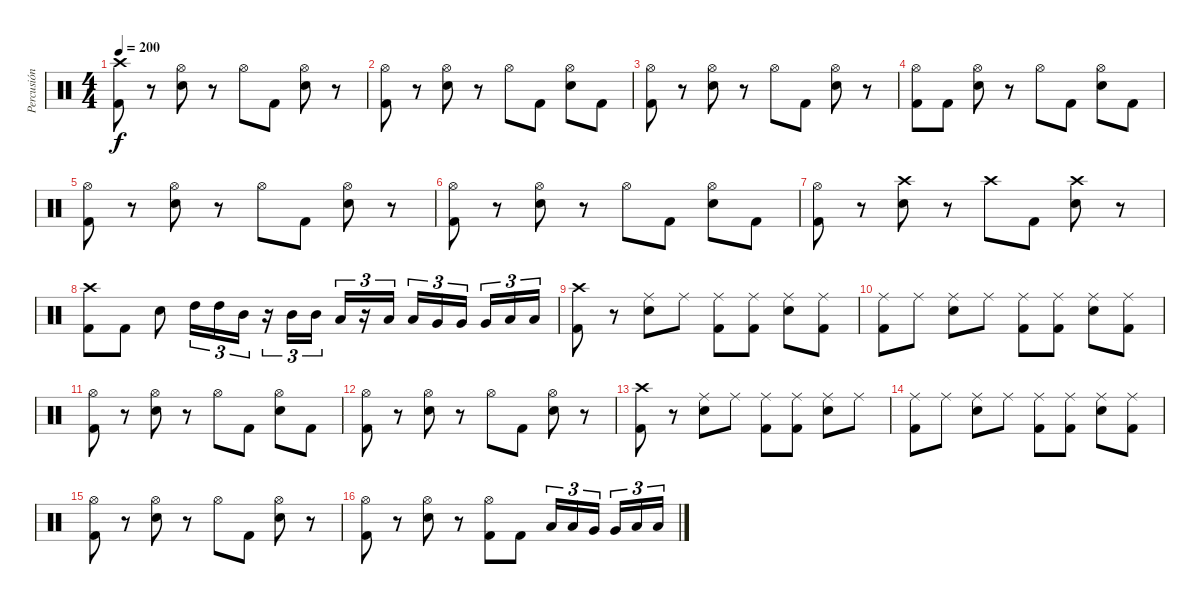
\track ("Percusión" "Percusión") {instrument percussion}
\staff {score}
\articulation defaults
\ts (4 4)
\tempo 200
\clef neutral
\ks c
("Crash high (hit)" "Kick (hit) 2").8{dy f} r.8 ("Hi-Hat (open)" "Electric Snare (hit)").8 r.8 "Hi-Hat (open)".8 "Kick (hit) 2".8 ("Hi-Hat (open)" "Electric Snare (hit)").8 r.8 |
("Hi-Hat (open)" "Kick (hit) 2").8 r.8 ("Hi-Hat (open)" "Electric Snare (hit)").8 r.8 "Hi-Hat (open)".8 "Kick (hit) 2".8 ("Hi-Hat (open)" "Electric Snare (hit)").8 "Kick (hit) 2".8 |
("Hi-Hat (open)" "Kick (hit) 2").8 r.8 ("Hi-Hat (open)" "Electric Snare (hit)").8 r.8 "Hi-Hat (open)".8 "Kick (hit) 2".8 ("Hi-Hat (open)" "Electric Snare (hit)").8 r.8 |
("Hi-Hat (open)" "Kick (hit) 2").8 "Kick (hit) 2".8 ("Hi-Hat (open)" "Electric Snare (hit)").8 r.8 "Hi-Hat (open)".8 "Kick (hit) 2".8 ("Hi-Hat (open)" "Electric Snare (hit)").8 "Kick (hit) 2".8 |
("Hi-Hat (open)" "Kick (hit) 2").8 r.8 ("Hi-Hat (open)" "Electric Snare (hit)").8 r.8 "Hi-Hat (open)".8 "Kick (hit) 2".8 ("Hi-Hat (open)" "Electric Snare (hit)").8 r.8 |
("Hi-Hat (open)" "Kick (hit) 2").8 r.8 ("Hi-Hat (open)" "Electric Snare (hit)").8 r.8 "Hi-Hat (open)".8 "Kick (hit) 2".8 ("Hi-Hat (open)" "Electric Snare (hit)").8 "Kick (hit) 2".8 |
("Hi-Hat (open)" "Kick (hit) 2").8 r.8 ("Crash high (hit)" "Electric Snare (hit)").8 r.8 "Crash high (hit)".8 "Kick (hit) 2".8 ("Crash high (hit)" "Electric Snare (hit)").8 r.8 |
("Crash high (hit)" "Kick (hit) 2").8 "Kick (hit) 2".8 "Electric Snare (hit)".8 "High Tom (hit)".16{tu (3 2)} "High Tom (hit)".16{tu (3 2)} "Mid Tom (hit)".16{tu (3 2)} r.16{tu (3 2)} "Mid Tom (hit)".16{tu (3 2)} "Mid Tom (hit)".16{tu (3 2) beam splitsecondary} "Low Tom (hit)".16{tu (3 2)} r.16{tu (3 2)} "Low Tom (hit)".16{tu (3 2)} "Low Tom (hit)".16{tu (3 2)} "Very Low Tom (hit)".16{tu (3 2)} "Very Low Tom (hit)".16{tu (3 2) beam splitsecondary} "Very Low Tom (hit)".16{tu (3 2)} "Low Floor Tom (hit)".16{tu (3 2)} "Low Floor Tom (hit)".16{tu (3 2)} |
("Crash high (hit)" "Kick (hit) 2").8 r.8 ("Ride (middle)" "Electric Snare (hit)").8 "Ride (middle)".8 ("Ride (middle)" "Kick (hit) 2").8 ("Ride (middle)" "Kick (hit) 2").8 ("Ride (middle)" "Electric Snare (hit)").8 ("Ride (middle)" "Kick (hit) 2").8 |
("Ride (middle)" "Kick (hit) 2").8 "Ride (middle)".8 ("Ride (middle)" "Electric Snare (hit)").8 "Ride (middle)".8 ("Ride (middle)" "Kick (hit) 2").8 ("Ride (middle)" "Kick (hit) 2").8 ("Ride (middle)" "Electric Snare (hit)").8 ("Ride (middle)" "Kick (hit) 2").8 |
("Hi-Hat (open)" "Kick (hit) 2").8 r.8 ("Hi-Hat (open)" "Electric Snare (hit)").8 r.8 "Hi-Hat (open)".8 "Kick (hit) 2".8 ("Hi-Hat (open)" "Electric Snare (hit)").8 "Kick (hit) 2".8 |
("Hi-Hat (open)" "Kick (hit) 2").8 r.8 ("Hi-Hat (open)" "Electric Snare (hit)").8 r.8 "Hi-Hat (open)".8 "Kick (hit) 2".8 ("Hi-Hat (open)" "Electric Snare (hit)").8 r.8 |
("Crash high (hit)" "Kick (hit) 2").8 r.8 ("Ride (middle)" "Electric Snare (hit)").8 "Ride (middle)".8 ("Ride (middle)" "Kick (hit) 2").8 ("Ride (middle)" "Kick (hit) 2").8 ("Ride (middle)" "Electric Snare (hit)").8 "Ride (middle)".8 |
("Ride (middle)" "Kick (hit) 2").8 "Ride (middle)".8 ("Ride (middle)" "Electric Snare (hit)").8 "Ride (middle)".8 ("Ride (middle)" "Kick (hit) 2").8 ("Ride (middle)" "Kick (hit) 2").8 ("Ride (middle)" "Electric Snare (hit)").8 ("Ride (middle)" "Kick (hit) 2").8 |
("Hi-Hat (open)" "Kick (hit) 2").8 r.8 ("Hi-Hat (open)" "Electric Snare (hit)").8 r.8 "Hi-Hat (open)".8 "Kick (hit) 2".8 ("Hi-Hat (open)" "Electric Snare (hit)").8 r.8 |
("Hi-Hat (open)" "Kick (hit) 2").8 r.8 ("Hi-Hat (open)" "Electric Snare (hit)").8 r.8 ("Hi-Hat (open)" "Kick (hit) 2").8 "Kick (hit) 2".8 "Low Tom (hit)".16{tu (3 2)} "Low Tom (hit)".16{tu (3 2)} "Very Low Tom (hit)".16{tu (3 2) beam splitsecondary} "Very Low Tom (hit)".16{tu (3 2)} "Low Floor Tom (hit)".16{tu (3 2)} "Low Floor Tom (hit)".16{tu (3 2)}
